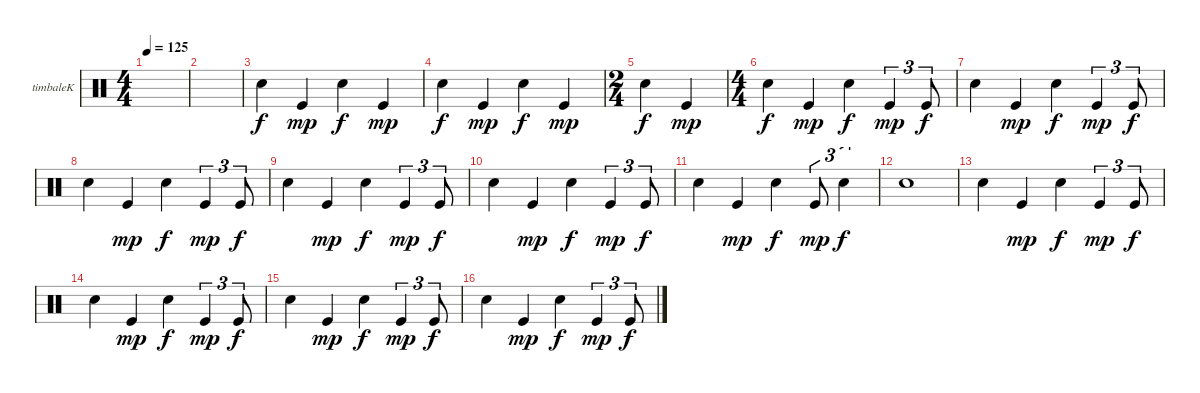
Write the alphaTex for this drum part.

\defaultSystemsLayout 4
\bracketExtendMode groupsimilarinstruments
\firstSystemTrackNameOrientation horizontal
\otherSystemsTrackNameOrientation horizontal
\track ("Timbale" "timbaleK") {instrument percussion}
\staff {score}
\articulation defaults
\ts (4 4)
\tempo 125
\clef neutral
\scale
0.333333
\ks c
|
\scale
0.333333 |
\scale
0.262911 "Snare (hit) 2".4 "Kick (hit)".4{dy mp} "Snare (hit) 2".4{dy f} "Kick (hit)".4{dy mp} |
\scale
0.262911 "Snare (hit) 2".4{dy f} "Kick (hit)".4{dy mp} "Snare (hit) 2".4{dy f} "Kick (hit)".4{dy mp} |
\ts (2 4)
\scale
0.474178 "Snare (hit) 2".4{dy f} "Kick (hit)".4{dy mp} |
\ts (4 4)
\scale
0.474178 "Snare (hit) 2".4{dy f} "Kick (hit)".4{dy mp} "Snare (hit) 2".4{dy f} "Kick (hit)".4{tu (3 2) dy mp} "Kick (hit)".8{tu (3 2) dy f} |
\scale
0.262911 "Snare (hit) 2".4 "Kick (hit)".4{dy mp} "Snare (hit) 2".4{dy f} "Kick (hit)".4{tu (3 2) dy mp} "Kick (hit)".8{tu (3 2) dy f} |
\scale
0.262911 "Snare (hit) 2".4 "Kick (hit)".4{dy mp} "Snare (hit) 2".4{dy f} "Kick (hit)".4{tu (3 2) dy mp} "Kick (hit)".8{tu (3 2) dy f} |
\scale
0.333333 "Snare (hit) 2".4 "Kick (hit)".4{dy mp} "Snare (hit) 2".4{dy f} "Kick (hit)".4{tu (3 2) dy mp} "Kick (hit)".8{tu (3 2) dy f} |
\scale
0.333333 "Snare (hit) 2".4 "Kick (hit)".4{dy mp} "Snare (hit) 2".4{dy f} "Kick (hit)".4{tu (3 2) dy mp} "Kick (hit)".8{tu (3 2) dy f} |
\scale
0.333333 "Snare (hit) 2".4 "Kick (hit)".4{dy mp} "Snare (hit) 2".4{dy f} "Kick (hit)".8{tu (3 2) dy mp} "Snare (hit) 2".4{tu (3 2) dy f} |
\scale
0.333333 "Snare (hit) 2".1 |
\scale
0.333333 "Snare (hit) 2".4 "Kick (hit)".4{dy mp} "Snare (hit) 2".4{dy f} "Kick (hit)".4{tu (3 2) dy mp} "Kick (hit)".8{tu (3 2) dy f} |
\scale
0.333333 "Snare (hit) 2".4 "Kick (hit)".4{dy mp} "Snare (hit) 2".4{dy f} "Kick (hit)".4{tu (3 2) dy mp} "Kick (hit)".8{tu (3 2) dy f} |
\scale
0.333333 "Snare (hit) 2".4 "Kick (hit)".4{dy mp} "Snare (hit) 2".4{dy f} "Kick (hit)".4{tu (3 2) dy mp} "Kick (hit)".8{tu (3 2) dy f} |
\scale
0.333333 "Snare (hit) 2".4 "Kick (hit)".4{dy mp} "Snare (hit) 2".4{dy f} "Kick (hit)".4{tu (3 2) dy mp} "Kick (hit)".8{tu (3 2) dy f}
